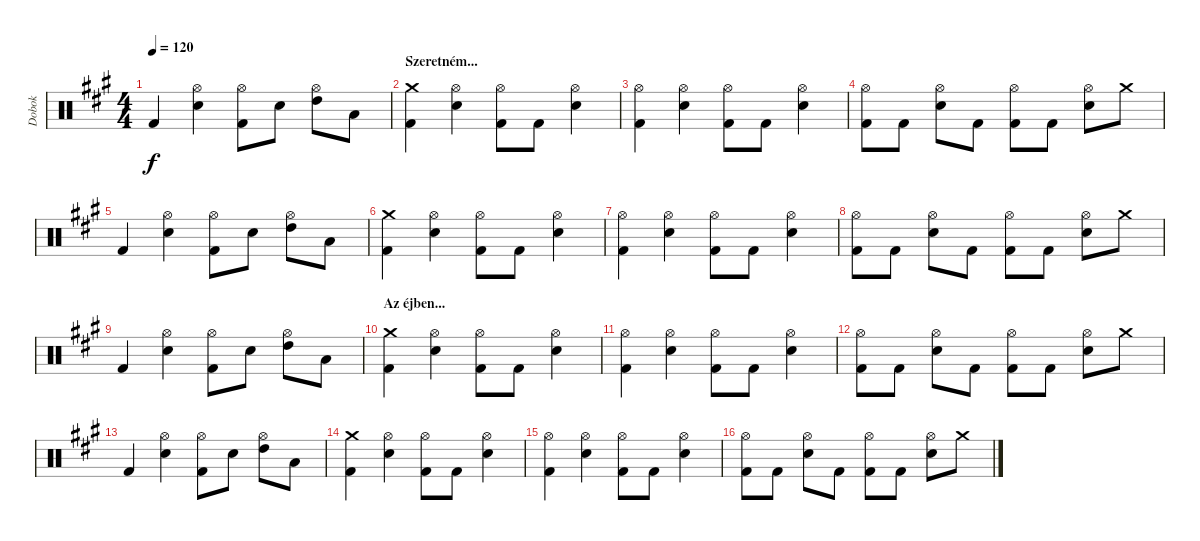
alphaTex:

\track ("Dobok" "Dobok") {instrument percussion}
\staff {score}
\articulation defaults
\ts (4 4)
\tempo 120
\clef neutral
\ks a "Kick (hit) 2".4{dy f}
("Hi-Hat (open)" "Snare (hit) 2").4 ("Hi-Hat (open)" "Kick (hit) 2").8 "Snare (hit) 2".8 ("Hi-Hat (open)" "High Tom (hit)").8 "Low Tom (hit)".8 |
\section ("" "Szeretném...")
("Crash medium (hit)" "Kick (hit) 2").4 ("Hi-Hat (open)" "Snare (hit) 2").4 ("Hi-Hat (open)" "Kick (hit) 2").8 "Kick (hit) 2".8 ("Hi-Hat (open)" "Snare (hit) 2").4 |
("Hi-Hat (open)" "Kick (hit) 2").4 ("Hi-Hat (open)" "Snare (hit) 2").4 ("Hi-Hat (open)" "Kick (hit) 2").8 "Kick (hit) 2".8 ("Hi-Hat (open)" "Snare (hit) 2").4 |
("Hi-Hat (open)" "Kick (hit) 2").8 "Kick (hit) 2".8 ("Hi-Hat (open)" "Snare (hit) 2").8 "Kick (hit) 2".8 ("Hi-Hat (open)" "Kick (hit) 2").8 "Kick (hit) 2".8 ("Hi-Hat (open)" "Snare (hit) 2").8 "Crash medium (hit)".8 |
"Kick (hit) 2".4 ("Hi-Hat (open)" "Snare (hit) 2").4 ("Hi-Hat (open)" "Kick (hit) 2").8 "Snare (hit) 2".8 ("Hi-Hat (open)" "High Tom (hit)").8 "Low Tom (hit)".8 |
("Crash medium (hit)" "Kick (hit) 2").4 ("Hi-Hat (open)" "Snare (hit) 2").4 ("Hi-Hat (open)" "Kick (hit) 2").8 "Kick (hit) 2".8 ("Hi-Hat (open)" "Snare (hit) 2").4 |
("Hi-Hat (open)" "Kick (hit) 2").4 ("Hi-Hat (open)" "Snare (hit) 2").4 ("Hi-Hat (open)" "Kick (hit) 2").8 "Kick (hit) 2".8 ("Hi-Hat (open)" "Snare (hit) 2").4 |
("Hi-Hat (open)" "Kick (hit) 2").8 "Kick (hit) 2".8 ("Hi-Hat (open)" "Snare (hit) 2").8 "Kick (hit) 2".8 ("Hi-Hat (open)" "Kick (hit) 2").8 "Kick (hit) 2".8 ("Hi-Hat (open)" "Snare (hit) 2").8 "Crash medium (hit)".8 |
"Kick (hit) 2".4 ("Hi-Hat (open)" "Snare (hit) 2").4 ("Hi-Hat (open)" "Kick (hit) 2").8 "Snare (hit) 2".8 ("Hi-Hat (open)" "High Tom (hit)").8 "Low Tom (hit)".8 |
\section ("" "Az éjben...")
("Crash medium (hit)" "Kick (hit) 2").4 ("Hi-Hat (open)" "Snare (hit) 2").4 ("Hi-Hat (open)" "Kick (hit) 2").8 "Kick (hit) 2".8 ("Hi-Hat (open)" "Snare (hit) 2").4 |
("Hi-Hat (open)" "Kick (hit) 2").4 ("Hi-Hat (open)" "Snare (hit) 2").4 ("Hi-Hat (open)" "Kick (hit) 2").8 "Kick (hit) 2".8 ("Hi-Hat (open)" "Snare (hit) 2").4 |
("Hi-Hat (open)" "Kick (hit) 2").8 "Kick (hit) 2".8 ("Hi-Hat (open)" "Snare (hit) 2").8 "Kick (hit) 2".8 ("Hi-Hat (open)" "Kick (hit) 2").8 "Kick (hit) 2".8 ("Hi-Hat (open)" "Snare (hit) 2").8 "Crash medium (hit)".8 |
"Kick (hit) 2".4 ("Hi-Hat (open)" "Snare (hit) 2").4 ("Hi-Hat (open)" "Kick (hit) 2").8 "Snare (hit) 2".8 ("Hi-Hat (open)" "High Tom (hit)").8 "Low Tom (hit)".8 |
("Crash medium (hit)" "Kick (hit) 2").4 ("Hi-Hat (open)" "Snare (hit) 2").4 ("Hi-Hat (open)" "Kick (hit) 2").8 "Kick (hit) 2".8 ("Hi-Hat (open)" "Snare (hit) 2").4 |
("Hi-Hat (open)" "Kick (hit) 2").4 ("Hi-Hat (open)" "Snare (hit) 2").4 ("Hi-Hat (open)" "Kick (hit) 2").8 "Kick (hit) 2".8 ("Hi-Hat (open)" "Snare (hit) 2").4 |
("Hi-Hat (open)" "Kick (hit) 2").8 "Kick (hit) 2".8 ("Hi-Hat (open)" "Snare (hit) 2").8 "Kick (hit) 2".8 ("Hi-Hat (open)" "Kick (hit) 2").8 "Kick (hit) 2".8 ("Hi-Hat (open)" "Snare (hit) 2").8 "Crash medium (hit)".8
